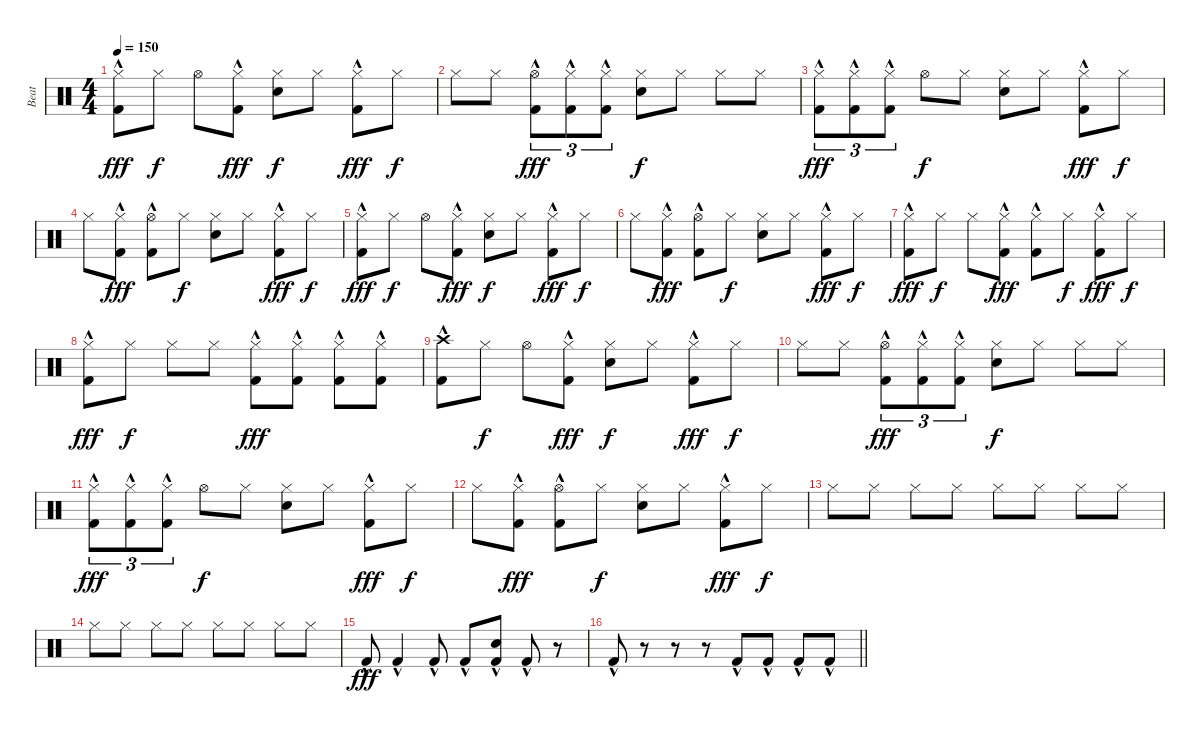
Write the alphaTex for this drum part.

\track ("Beat" "Beat") {instrument percussion}
\staff {score}
\articulation defaults
\ts (4 4)
\tempo 150
\clef neutral
\ks c
("Hi-Hat (closed)" "Kick (hit) 2"{hac}).8{dy fff} "Hi-Hat (closed)".8{dy f} "Hi-Hat (open)".8 ("Hi-Hat (closed)" "Kick (hit) 2"{hac}).8{dy fff} ("Hi-Hat (closed)" "Hand Clap (hit)").8{dy f} "Hi-Hat (closed)".8 ("Hi-Hat (closed)" "Kick (hit) 2"{hac}).8{dy fff} "Hi-Hat (closed)".8{dy f} |
"Hi-Hat (closed)".8 "Hi-Hat (closed)".8 ("Hi-Hat (open)" "Kick (hit) 2"{hac}).8{tu (3 2) dy fff} ("Hi-Hat (closed)" "Kick (hit) 2"{hac}).8{tu (3 2)} ("Hi-Hat (closed)" "Kick (hit) 2"{hac}).8{tu (3 2)} ("Hi-Hat (closed)" "Hand Clap (hit)").8{dy f} "Hi-Hat (closed)".8 "Hi-Hat (closed)".8 "Hi-Hat (closed)".8 |
("Hi-Hat (closed)" "Kick (hit) 2"{hac}).8{tu (3 2) dy fff} ("Hi-Hat (closed)" "Kick (hit) 2"{hac}).8{tu (3 2)} ("Hi-Hat (closed)" "Kick (hit) 2"{hac}).8{tu (3 2)} "Hi-Hat (open)".8{dy f} "Hi-Hat (closed)".8 ("Hi-Hat (closed)" "Hand Clap (hit)").8 "Hi-Hat (closed)".8 ("Hi-Hat (closed)" "Kick (hit) 2"{hac}).8{dy fff} "Hi-Hat (closed)".8{dy f} |
"Hi-Hat (closed)".8 ("Hi-Hat (closed)" "Kick (hit) 2"{hac}).8{dy fff} ("Hi-Hat (open)" "Kick (hit) 2"{hac}).8 "Hi-Hat (closed)".8{dy f} ("Hi-Hat (closed)" "Hand Clap (hit)").8 "Hi-Hat (closed)".8 ("Hi-Hat (closed)" "Kick (hit) 2"{hac}).8{dy fff} "Hi-Hat (closed)".8{dy f} |
("Hi-Hat (closed)" "Kick (hit) 2"{hac}).8{dy fff} "Hi-Hat (closed)".8{dy f} "Hi-Hat (open)".8 ("Hi-Hat (closed)" "Kick (hit) 2"{hac}).8{dy fff} ("Hi-Hat (closed)" "Hand Clap (hit)").8{dy f} "Hi-Hat (closed)".8 ("Hi-Hat (closed)" "Kick (hit) 2"{hac}).8{dy fff} "Hi-Hat (closed)".8{dy f} |
"Hi-Hat (closed)".8 ("Hi-Hat (closed)" "Kick (hit) 2"{hac}).8{dy fff} ("Hi-Hat (open)" "Kick (hit) 2"{hac}).8 "Hi-Hat (closed)".8{dy f} ("Hi-Hat (closed)" "Hand Clap (hit)").8 "Hi-Hat (closed)".8 ("Hi-Hat (closed)" "Kick (hit) 2"{hac}).8{dy fff} "Hi-Hat (closed)".8{dy f} |
("Hi-Hat (closed)" "Kick (hit) 2"{hac}).8{dy fff} "Hi-Hat (closed)".8{dy f} "Hi-Hat (closed)".8 ("Hi-Hat (closed)" "Kick (hit) 2"{hac}).8{dy fff} ("Hi-Hat (closed)" "Kick (hit) 2"{hac}).8 "Hi-Hat (closed)".8{dy f} ("Hi-Hat (closed)" "Kick (hit) 2"{hac}).8{dy fff} "Hi-Hat (closed)".8{dy f} |
("Hi-Hat (closed)" "Kick (hit) 2"{hac}).8{dy fff} "Hi-Hat (closed)".8{dy f} "Hi-Hat (closed)".8 "Hi-Hat (closed)".8 ("Hi-Hat (closed)"{hac} "Kick (hit) 2"{hac}).8{dy fff} ("Hi-Hat (closed)"{hac} "Kick (hit) 2"{hac}).8 ("Hi-Hat (closed)" "Kick (hit) 2"{hac}).8 ("Hi-Hat (closed)" "Kick (hit) 2"{hac}).8 |
("Crash high (hit)" "Kick (hit) 2"{hac}).8 "Hi-Hat (closed)".8{dy f} "Hi-Hat (open)".8 ("Hi-Hat (closed)" "Kick (hit) 2"{hac}).8{dy fff} ("Hi-Hat (closed)" "Hand Clap (hit)").8{dy f} "Hi-Hat (closed)".8 ("Hi-Hat (closed)" "Kick (hit) 2"{hac}).8{dy fff} "Hi-Hat (closed)".8{dy f} |
"Hi-Hat (closed)".8 "Hi-Hat (closed)".8 ("Hi-Hat (open)" "Kick (hit) 2"{hac}).8{tu (3 2) dy fff} ("Hi-Hat (closed)" "Kick (hit) 2"{hac}).8{tu (3 2)} ("Hi-Hat (closed)" "Kick (hit) 2"{hac}).8{tu (3 2)} ("Hi-Hat (closed)" "Hand Clap (hit)").8{dy f} "Hi-Hat (closed)".8 "Hi-Hat (closed)".8 "Hi-Hat (closed)".8 |
("Hi-Hat (closed)" "Kick (hit) 2"{hac}).8{tu (3 2) dy fff} ("Hi-Hat (closed)" "Kick (hit) 2"{hac}).8{tu (3 2)} ("Hi-Hat (closed)" "Kick (hit) 2"{hac}).8{tu (3 2)} "Hi-Hat (open)".8{dy f} "Hi-Hat (closed)".8 ("Hi-Hat (closed)" "Hand Clap (hit)").8 "Hi-Hat (closed)".8 ("Hi-Hat (closed)" "Kick (hit) 2"{hac}).8{dy fff} "Hi-Hat (closed)".8{dy f} |
"Hi-Hat (closed)".8 ("Hi-Hat (closed)" "Kick (hit) 2"{hac}).8{dy fff} ("Hi-Hat (open)" "Kick (hit) 2"{hac}).8 "Hi-Hat (closed)".8{dy f} ("Hi-Hat (closed)" "Hand Clap (hit)").8 "Hi-Hat (closed)".8 ("Hi-Hat (closed)" "Kick (hit) 2"{hac}).8{dy fff} "Hi-Hat (closed)".8{dy f} |
"Hi-Hat (closed)".8 "Hi-Hat (closed)".8 "Hi-Hat (closed)".8 "Hi-Hat (closed)".8 "Hi-Hat (closed)".8 "Hi-Hat (closed)".8 "Hi-Hat (closed)".8 "Hi-Hat (closed)".8 |
"Hi-Hat (closed)".8 "Hi-Hat (closed)".8 "Hi-Hat (closed)".8 "Hi-Hat (closed)".8 "Hi-Hat (closed)".8 "Hi-Hat (closed)".8 "Hi-Hat (closed)".8 "Hi-Hat (closed)".8 |
"Kick (hit) 2"{hac}.8{dy fff} "Kick (hit) 2"{hac}.4 "Kick (hit) 2"{hac}.8 "Kick (hit) 2"{hac}.8 ("Hand Clap (hit)" "Kick (hit) 2"{hac}).8 "Kick (hit) 2"{hac}.8 r.8 |
\barLineRight lightlight "Kick (hit) 2"{hac}.8
r.8 r.8 r.8 "Kick (hit) 2"{hac}.8 "Kick (hit) 2"{hac}.8 "Kick (hit) 2"{hac}.8 "Kick (hit) 2"{hac}.8
